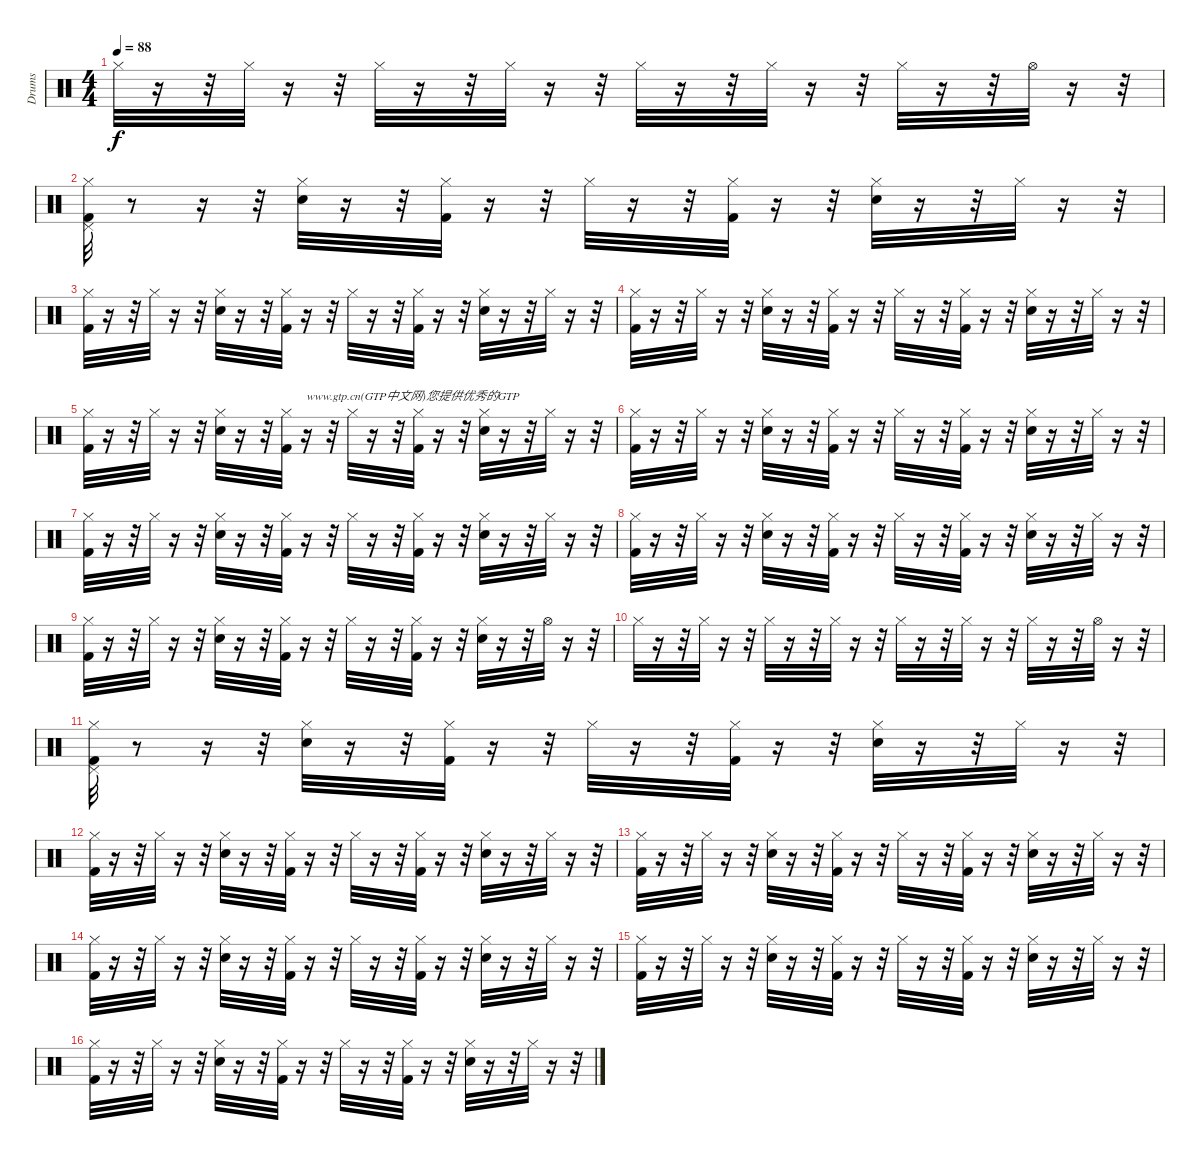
\track ("Drums" "Drums") {instrument percussion}
\staff {score}
\articulation defaults
\ts (4 4)
\tempo 88
\clef neutral
\ks c "Hi-Hat (closed)".32{dy f}
r.16 r.32 "Hi-Hat (closed)".32 r.16 r.32 "Hi-Hat (closed)".32 r.16 r.32 "Hi-Hat (closed)".32 r.16 r.32 "Hi-Hat (closed)".32 r.16 r.32 "Hi-Hat (closed)".32 r.16 r.32 "Hi-Hat (closed)".32 r.16 r.32 "Hi-Hat (open)".32 r.16 r.32 |
("Hi-Hat (closed)" "Pedal Hi-Hat (hit)" "Kick (hit) 2").32 r.8 r.16 r.32 ("Hi-Hat (closed)" "Electric Snare (hit)").32 r.16 r.32 ("Kick (hit) 2" "Hi-Hat (closed)").32 r.16 r.32 "Hi-Hat (closed)".32 r.16 r.32 ("Kick (hit) 2" "Hi-Hat (closed)").32 r.16 r.32 ("Hi-Hat (closed)" "Electric Snare (hit)").32 r.16 r.32 "Hi-Hat (closed)".32 r.16 r.32 |
("Hi-Hat (closed)" "Kick (hit) 2").32 r.16 r.32 "Hi-Hat (closed)".32 r.16 r.32 ("Hi-Hat (closed)" "Electric Snare (hit)").32 r.16 r.32 ("Kick (hit) 2" "Hi-Hat (closed)").32 r.16 r.32 "Hi-Hat (closed)".32 r.16 r.32 ("Kick (hit) 2" "Hi-Hat (closed)").32 r.16 r.32 ("Hi-Hat (closed)" "Electric Snare (hit)").32 r.16 r.32 "Hi-Hat (closed)".32 r.16 r.32 |
("Hi-Hat (closed)" "Kick (hit) 2").32 r.16 r.32 "Hi-Hat (closed)".32 r.16 r.32 ("Hi-Hat (closed)" "Electric Snare (hit)").32 r.16 r.32 ("Kick (hit) 2" "Hi-Hat (closed)").32 r.16 r.32 "Hi-Hat (closed)".32 r.16 r.32 ("Kick (hit) 2" "Hi-Hat (closed)").32 r.16 r.32 ("Hi-Hat (closed)" "Electric Snare (hit)").32 r.16 r.32 "Hi-Hat (closed)".32 r.16 r.32 |
("Hi-Hat (closed)" "Kick (hit) 2").32 r.16 r.32 "Hi-Hat (closed)".32 r.16 r.32 ("Hi-Hat (closed)" "Electric Snare (hit)").32 r.16 r.32 ("Kick (hit) 2" "Hi-Hat (closed)").32 r.16{txt "www.gtp.cn(GTP中文网)您提供优秀的GTP"} r.32 "Hi-Hat (closed)".32 r.16 r.32 ("Kick (hit) 2" "Hi-Hat (closed)").32 r.16 r.32 ("Hi-Hat (closed)" "Electric Snare (hit)").32 r.16 r.32 "Hi-Hat (closed)".32 r.16 r.32 |
("Hi-Hat (closed)" "Kick (hit) 2").32 r.16 r.32 "Hi-Hat (closed)".32 r.16 r.32 ("Hi-Hat (closed)" "Electric Snare (hit)").32 r.16 r.32 ("Kick (hit) 2" "Hi-Hat (closed)").32 r.16 r.32 "Hi-Hat (closed)".32 r.16 r.32 ("Kick (hit) 2" "Hi-Hat (closed)").32 r.16 r.32 ("Hi-Hat (closed)" "Electric Snare (hit)").32 r.16 r.32 "Hi-Hat (closed)".32 r.16 r.32 |
("Hi-Hat (closed)" "Kick (hit) 2").32 r.16 r.32 "Hi-Hat (closed)".32 r.16 r.32 ("Hi-Hat (closed)" "Electric Snare (hit)").32 r.16 r.32 ("Kick (hit) 2" "Hi-Hat (closed)").32 r.16 r.32 "Hi-Hat (closed)".32 r.16 r.32 ("Kick (hit) 2" "Hi-Hat (closed)").32 r.16 r.32 ("Hi-Hat (closed)" "Electric Snare (hit)").32 r.16 r.32 "Hi-Hat (closed)".32 r.16 r.32 |
("Hi-Hat (closed)" "Kick (hit) 2").32 r.16 r.32 "Hi-Hat (closed)".32 r.16 r.32 ("Hi-Hat (closed)" "Electric Snare (hit)").32 r.16 r.32 ("Kick (hit) 2" "Hi-Hat (closed)").32 r.16 r.32 "Hi-Hat (closed)".32 r.16 r.32 ("Kick (hit) 2" "Hi-Hat (closed)").32 r.16 r.32 ("Hi-Hat (closed)" "Electric Snare (hit)").32 r.16 r.32 "Hi-Hat (closed)".32 r.16 r.32 |
("Hi-Hat (closed)" "Kick (hit) 2").32 r.16 r.32 "Hi-Hat (closed)".32 r.16 r.32 ("Hi-Hat (closed)" "Electric Snare (hit)").32 r.16 r.32 ("Kick (hit) 2" "Hi-Hat (closed)").32 r.16 r.32 "Hi-Hat (closed)".32 r.16 r.32 ("Kick (hit) 2" "Hi-Hat (closed)").32 r.16 r.32 ("Hi-Hat (closed)" "Electric Snare (hit)").32 r.16 r.32 "Hi-Hat (open)".32 r.16 r.32 |
"Hi-Hat (closed)".32 r.16 r.32 "Hi-Hat (closed)".32 r.16 r.32 "Hi-Hat (closed)".32 r.16 r.32 "Hi-Hat (closed)".32 r.16 r.32 "Hi-Hat (closed)".32 r.16 r.32 "Hi-Hat (closed)".32 r.16 r.32 "Hi-Hat (closed)".32 r.16 r.32 "Hi-Hat (open)".32 r.16 r.32 |
("Hi-Hat (closed)" "Pedal Hi-Hat (hit)" "Kick (hit) 2").32 r.8 r.16 r.32 ("Hi-Hat (closed)" "Electric Snare (hit)").32 r.16 r.32 ("Kick (hit) 2" "Hi-Hat (closed)").32 r.16 r.32 "Hi-Hat (closed)".32 r.16 r.32 ("Kick (hit) 2" "Hi-Hat (closed)").32 r.16 r.32 ("Hi-Hat (closed)" "Electric Snare (hit)").32 r.16 r.32 "Hi-Hat (closed)".32 r.16 r.32 |
("Hi-Hat (closed)" "Kick (hit) 2").32 r.16 r.32 "Hi-Hat (closed)".32 r.16 r.32 ("Hi-Hat (closed)" "Electric Snare (hit)").32 r.16 r.32 ("Kick (hit) 2" "Hi-Hat (closed)").32 r.16 r.32 "Hi-Hat (closed)".32 r.16 r.32 ("Kick (hit) 2" "Hi-Hat (closed)").32 r.16 r.32 ("Hi-Hat (closed)" "Electric Snare (hit)").32 r.16 r.32 "Hi-Hat (closed)".32 r.16 r.32 |
("Hi-Hat (closed)" "Kick (hit) 2").32 r.16 r.32 "Hi-Hat (closed)".32 r.16 r.32 ("Hi-Hat (closed)" "Electric Snare (hit)").32 r.16 r.32 ("Kick (hit) 2" "Hi-Hat (closed)").32 r.16 r.32 "Hi-Hat (closed)".32 r.16 r.32 ("Kick (hit) 2" "Hi-Hat (closed)").32 r.16 r.32 ("Hi-Hat (closed)" "Electric Snare (hit)").32 r.16 r.32 "Hi-Hat (closed)".32 r.16 r.32 |
("Hi-Hat (closed)" "Kick (hit) 2").32 r.16 r.32 "Hi-Hat (closed)".32 r.16 r.32 ("Hi-Hat (closed)" "Electric Snare (hit)").32 r.16 r.32 ("Kick (hit) 2" "Hi-Hat (closed)").32 r.16 r.32 "Hi-Hat (closed)".32 r.16 r.32 ("Kick (hit) 2" "Hi-Hat (closed)").32 r.16 r.32 ("Hi-Hat (closed)" "Electric Snare (hit)").32 r.16 r.32 "Hi-Hat (closed)".32 r.16 r.32 |
("Hi-Hat (closed)" "Kick (hit) 2").32 r.16 r.32 "Hi-Hat (closed)".32 r.16 r.32 ("Hi-Hat (closed)" "Electric Snare (hit)").32 r.16 r.32 ("Kick (hit) 2" "Hi-Hat (closed)").32 r.16 r.32 "Hi-Hat (closed)".32 r.16 r.32 ("Kick (hit) 2" "Hi-Hat (closed)").32 r.16 r.32 ("Hi-Hat (closed)" "Electric Snare (hit)").32 r.16 r.32 "Hi-Hat (closed)".32 r.16 r.32 |
("Hi-Hat (closed)" "Kick (hit) 2").32 r.16 r.32 "Hi-Hat (closed)".32 r.16 r.32 ("Hi-Hat (closed)" "Electric Snare (hit)").32 r.16 r.32 ("Kick (hit) 2" "Hi-Hat (closed)").32 r.16 r.32 "Hi-Hat (closed)".32 r.16 r.32 ("Kick (hit) 2" "Hi-Hat (closed)").32 r.16 r.32 ("Hi-Hat (closed)" "Electric Snare (hit)").32 r.16 r.32 "Hi-Hat (closed)".32 r.16 r.32
